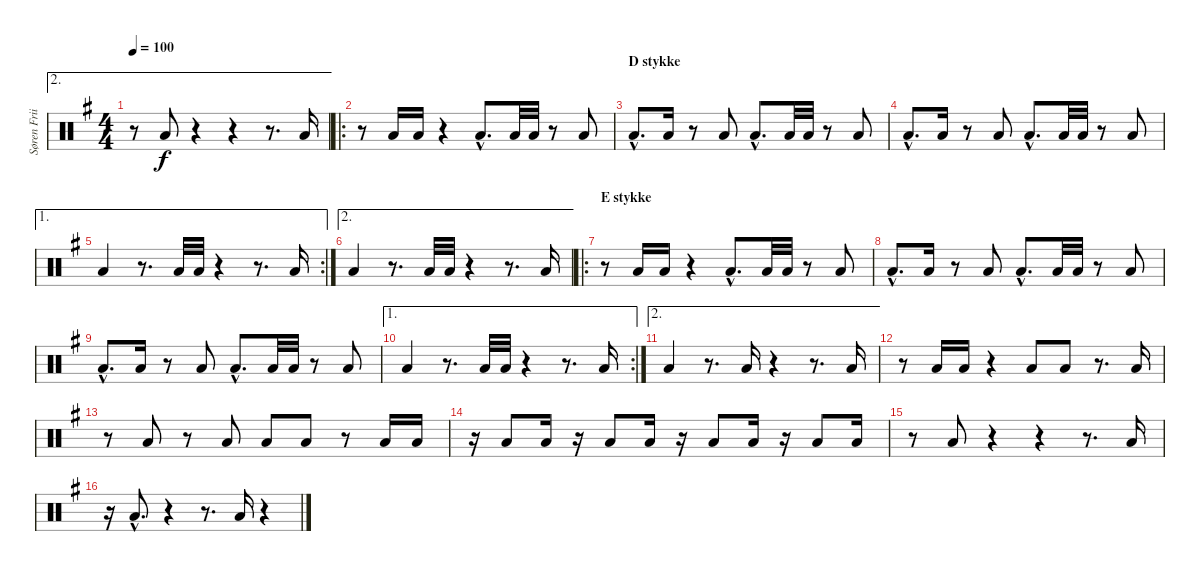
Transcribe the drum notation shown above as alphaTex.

\track ("Søren Friis (Drums)" "Søren Frii") {instrument percussion}
\staff {score}
\articulation defaults
\ae 2
\ts (4 4)
\tempo 100
\clef neutral
\ks g
r.8{dy f} "Low Floor Tom (hit)".8 r.4 r.4 r.8{d} "Low Floor Tom (hit)".16 |
\ro
r.8 "Low Floor Tom (hit)".16 "Low Floor Tom (hit)".16 r.4 "Low Floor Tom (hit)"{hac}.8{d} "Low Floor Tom (hit)".32 "Low Floor Tom (hit)".32 r.8 "Low Floor Tom (hit)".8 |
\section ("" "D stykke")
"Low Floor Tom (hit)"{hac}.8{d} "Low Floor Tom (hit)".16 r.8 "Low Floor Tom (hit)".8 "Low Floor Tom (hit)"{hac}.8{d} "Low Floor Tom (hit)".32 "Low Floor Tom (hit)".32 r.8 "Low Floor Tom (hit)".8 |
"Low Floor Tom (hit)"{hac}.8{d} "Low Floor Tom (hit)".16 r.8 "Low Floor Tom (hit)".8 "Low Floor Tom (hit)"{hac}.8{d} "Low Floor Tom (hit)".32 "Low Floor Tom (hit)".32 r.8 "Low Floor Tom (hit)".8 |
\ae 1
\rc 2 "Low Floor Tom (hit)".4
r.8{d} "Low Floor Tom (hit)".32 "Low Floor Tom (hit)".32 r.4 r.8{d} "Low Floor Tom (hit)".16 |
\ae 2 "Low Floor Tom (hit)".4
r.8{d} "Low Floor Tom (hit)".32 "Low Floor Tom (hit)".32 r.4 r.8{d} "Low Floor Tom (hit)".16 |
\ro
\section ("" "E stykke")
r.8 "Low Floor Tom (hit)".16 "Low Floor Tom (hit)".16 r.4 "Low Floor Tom (hit)"{hac}.8{d} "Low Floor Tom (hit)".32 "Low Floor Tom (hit)".32 r.8 "Low Floor Tom (hit)".8 |
"Low Floor Tom (hit)"{hac}.8{d} "Low Floor Tom (hit)".16 r.8 "Low Floor Tom (hit)".8 "Low Floor Tom (hit)"{hac}.8{d} "Low Floor Tom (hit)".32 "Low Floor Tom (hit)".32 r.8 "Low Floor Tom (hit)".8 |
"Low Floor Tom (hit)"{hac}.8{d} "Low Floor Tom (hit)".16 r.8 "Low Floor Tom (hit)".8 "Low Floor Tom (hit)"{hac}.8{d} "Low Floor Tom (hit)".32 "Low Floor Tom (hit)".32 r.8 "Low Floor Tom (hit)".8 |
\ae 1
\rc 2 "Low Floor Tom (hit)".4
r.8{d} "Low Floor Tom (hit)".32 "Low Floor Tom (hit)".32 r.4 r.8{d} "Low Floor Tom (hit)".16 |
\ae 2 "Low Floor Tom (hit)".4
r.8{d} "Low Floor Tom (hit)".16 r.4 r.8{d} "Low Floor Tom (hit)".16 |
r.8 "Low Floor Tom (hit)".16 "Low Floor Tom (hit)".16 r.4 "Low Floor Tom (hit)".8 "Low Floor Tom (hit)".8 r.8{d} "Low Floor Tom (hit)".16 |
r.8 "Low Floor Tom (hit)".8 r.8 "Low Floor Tom (hit)".8 "Low Floor Tom (hit)".8 "Low Floor Tom (hit)".8 r.8 "Low Floor Tom (hit)".16 "Low Floor Tom (hit)".16 |
r.16 "Low Floor Tom (hit)".8 "Low Floor Tom (hit)".16 r.16 "Low Floor Tom (hit)".8 "Low Floor Tom (hit)".16 r.16 "Low Floor Tom (hit)".8 "Low Floor Tom (hit)".16 r.16 "Low Floor Tom (hit)".8 "Low Floor Tom (hit)".16 |
r.8 "Low Floor Tom (hit)".8 r.4 r.4 r.8{d} "Low Floor Tom (hit)".16 |
r.16 "Low Floor Tom (hit)"{hac}.8{d} r.4 r.8{d} "Low Floor Tom (hit)".16 r.4
